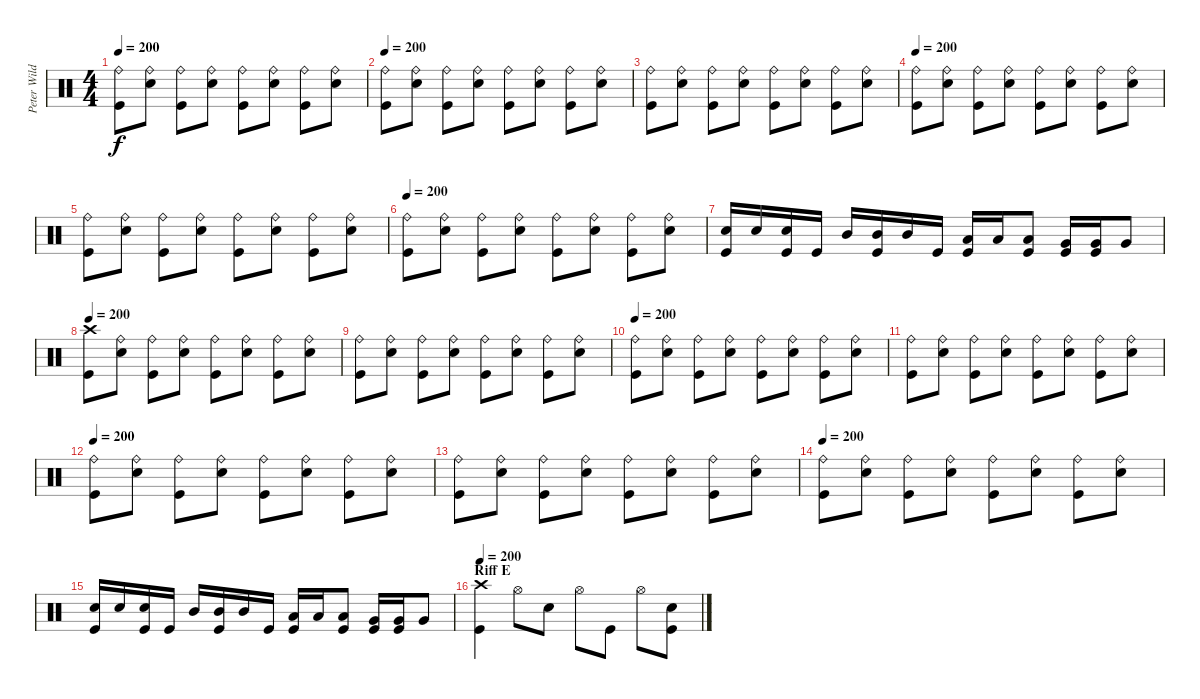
\track ("Peter Wildoer " "Peter Wild") {instrument percussion}
\staff {score}
\articulation defaults
\ts (4 4)
\tempo 200
\clef neutral
\ks c
("Ride (bell)" "Kick (hit)").8{dy f} ("Ride (bell)" "Electric Snare (hit)").8 ("Ride (bell)" "Kick (hit)").8 ("Ride (bell)" "Electric Snare (hit)").8 ("Ride (bell)" "Kick (hit)").8 ("Ride (bell)" "Electric Snare (hit)").8 ("Ride (bell)" "Kick (hit)").8 ("Ride (bell)" "Electric Snare (hit)").8 |
\tempo 200
("Ride (bell)" "Kick (hit)").8 ("Ride (bell)" "Electric Snare (hit)").8 ("Ride (bell)" "Kick (hit)").8 ("Ride (bell)" "Electric Snare (hit)").8 ("Ride (bell)" "Kick (hit)").8 ("Ride (bell)" "Electric Snare (hit)").8 ("Ride (bell)" "Kick (hit)").8 ("Ride (bell)" "Electric Snare (hit)").8 |
("Ride (bell)" "Kick (hit)").8 ("Ride (bell)" "Electric Snare (hit)").8 ("Ride (bell)" "Kick (hit)").8 ("Ride (bell)" "Electric Snare (hit)").8 ("Ride (bell)" "Kick (hit)").8 ("Ride (bell)" "Electric Snare (hit)").8 ("Ride (bell)" "Kick (hit)").8 ("Ride (bell)" "Electric Snare (hit)").8 |
\tempo 200
("Ride (bell)" "Kick (hit)").8 ("Ride (bell)" "Electric Snare (hit)").8 ("Ride (bell)" "Kick (hit)").8 ("Ride (bell)" "Electric Snare (hit)").8 ("Ride (bell)" "Kick (hit)").8 ("Ride (bell)" "Electric Snare (hit)").8 ("Ride (bell)" "Kick (hit)").8 ("Ride (bell)" "Electric Snare (hit)").8 |
("Ride (bell)" "Kick (hit)").8 ("Ride (bell)" "Electric Snare (hit)").8 ("Ride (bell)" "Kick (hit)").8 ("Ride (bell)" "Electric Snare (hit)").8 ("Ride (bell)" "Kick (hit)").8 ("Ride (bell)" "Electric Snare (hit)").8 ("Ride (bell)" "Kick (hit)").8 ("Ride (bell)" "Electric Snare (hit)").8 |
\tempo 200
("Ride (bell)" "Kick (hit)").8 ("Ride (bell)" "Electric Snare (hit)").8 ("Ride (bell)" "Kick (hit)").8 ("Ride (bell)" "Electric Snare (hit)").8 ("Ride (bell)" "Kick (hit)").8 ("Ride (bell)" "Electric Snare (hit)").8 ("Ride (bell)" "Kick (hit)").8 ("Ride (bell)" "Electric Snare (hit)").8 |
("Electric Snare (hit)" "Kick (hit)").16 "Electric Snare (hit)".16 ("Electric Snare (hit)" "Kick (hit)").16 "Kick (hit)".16 "Mid Tom (hit)".16 ("Mid Tom (hit)" "Kick (hit)").16 "Mid Tom (hit)".16 "Kick (hit)".16 ("Low Tom (hit)" "Kick (hit)").16 "Low Tom (hit)".16 ("Low Tom (hit)" "Kick (hit)").8 ("Very Low Tom (hit)" "Kick (hit)").16 ("Very Low Tom (hit)" "Kick (hit)").16 "Very Low Tom (hit)".8 |
\tempo 200
("Crash high (hit)" "Kick (hit)").8 ("Ride (bell)" "Electric Snare (hit)").8 ("Ride (bell)" "Kick (hit)").8 ("Ride (bell)" "Electric Snare (hit)").8 ("Ride (bell)" "Kick (hit)").8 ("Ride (bell)" "Electric Snare (hit)").8 ("Ride (bell)" "Kick (hit)").8 ("Ride (bell)" "Electric Snare (hit)").8 |
("Ride (bell)" "Kick (hit)").8 ("Ride (bell)" "Electric Snare (hit)").8 ("Ride (bell)" "Kick (hit)").8 ("Ride (bell)" "Electric Snare (hit)").8 ("Ride (bell)" "Kick (hit)").8 ("Ride (bell)" "Electric Snare (hit)").8 ("Ride (bell)" "Kick (hit)").8 ("Ride (bell)" "Electric Snare (hit)").8 |
\tempo 200
("Ride (bell)" "Kick (hit)").8 ("Ride (bell)" "Electric Snare (hit)").8 ("Ride (bell)" "Kick (hit)").8 ("Ride (bell)" "Electric Snare (hit)").8 ("Ride (bell)" "Kick (hit)").8 ("Ride (bell)" "Electric Snare (hit)").8 ("Ride (bell)" "Kick (hit)").8 ("Ride (bell)" "Electric Snare (hit)").8 |
("Ride (bell)" "Kick (hit)").8 ("Ride (bell)" "Electric Snare (hit)").8 ("Ride (bell)" "Kick (hit)").8 ("Ride (bell)" "Electric Snare (hit)").8 ("Ride (bell)" "Kick (hit)").8 ("Ride (bell)" "Electric Snare (hit)").8 ("Ride (bell)" "Kick (hit)").8 ("Ride (bell)" "Electric Snare (hit)").8 |
\tempo 200
("Ride (bell)" "Kick (hit)").8 ("Ride (bell)" "Electric Snare (hit)").8 ("Ride (bell)" "Kick (hit)").8 ("Ride (bell)" "Electric Snare (hit)").8 ("Ride (bell)" "Kick (hit)").8 ("Ride (bell)" "Electric Snare (hit)").8 ("Ride (bell)" "Kick (hit)").8 ("Ride (bell)" "Electric Snare (hit)").8 |
("Ride (bell)" "Kick (hit)").8 ("Ride (bell)" "Electric Snare (hit)").8 ("Ride (bell)" "Kick (hit)").8 ("Ride (bell)" "Electric Snare (hit)").8 ("Ride (bell)" "Kick (hit)").8 ("Ride (bell)" "Electric Snare (hit)").8 ("Ride (bell)" "Kick (hit)").8 ("Ride (bell)" "Electric Snare (hit)").8 |
\tempo 200
("Ride (bell)" "Kick (hit)").8 ("Ride (bell)" "Electric Snare (hit)").8 ("Ride (bell)" "Kick (hit)").8 ("Ride (bell)" "Electric Snare (hit)").8 ("Ride (bell)" "Kick (hit)").8 ("Ride (bell)" "Electric Snare (hit)").8 ("Ride (bell)" "Kick (hit)").8 ("Ride (bell)" "Electric Snare (hit)").8 |
("Electric Snare (hit)" "Kick (hit)").16 "Electric Snare (hit)".16 ("Electric Snare (hit)" "Kick (hit)").16 "Kick (hit)".16 "Mid Tom (hit)".16 ("Mid Tom (hit)" "Kick (hit)").16 "Mid Tom (hit)".16 "Kick (hit)".16 ("Low Tom (hit)" "Kick (hit)").16 "Low Tom (hit)".16 ("Low Tom (hit)" "Kick (hit)").8 ("Very Low Tom (hit)" "Kick (hit)").16 ("Very Low Tom (hit)" "Kick (hit)").16 "Very Low Tom (hit)".8 |
\section ("" "Riff E")
\tempo 200
("Crash high (hit)" "Kick (hit)").4 "Hi-Hat (open)".8 "Electric Snare (hit)".8 "Hi-Hat (open)".8 "Kick (hit)".8 "Hi-Hat (open)".8 ("Electric Snare (hit)" "Kick (hit)").8
